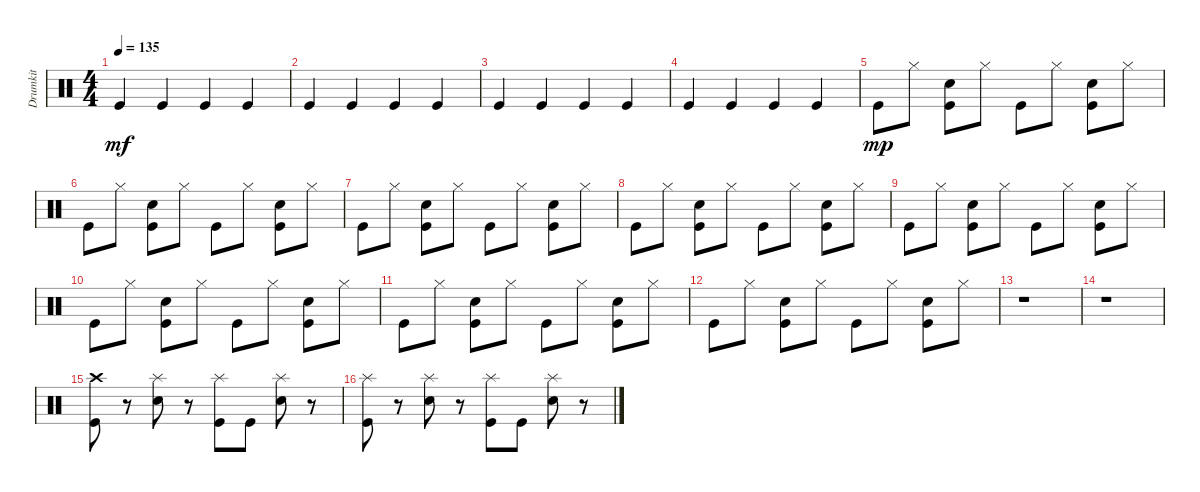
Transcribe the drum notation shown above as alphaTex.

\track ("Drumkit" "Drumkit") {instrument percussion}
\staff {score}
\articulation defaults
\ts (4 4)
\tempo 135
\clef neutral
\ks c "Kick (hit)".4{dy mf} "Kick (hit)".4 "Kick (hit)".4 "Kick (hit)".4
|
"Kick (hit)".4 "Kick (hit)".4 "Kick (hit)".4 "Kick (hit)".4 |
"Kick (hit)".4 "Kick (hit)".4 "Kick (hit)".4 "Kick (hit)".4 |
"Kick (hit)".4 "Kick (hit)".4 "Kick (hit)".4 "Kick (hit)".4 |
"Kick (hit)".8{dy mp} "Hi-Hat (closed)".8 ("Kick (hit)" "Snare (hit) 2").8 "Hi-Hat (closed)".8 "Kick (hit)".8 "Hi-Hat (closed)".8 ("Kick (hit)" "Snare (hit) 2").8 "Hi-Hat (closed)".8 |
"Kick (hit)".8 "Hi-Hat (closed)".8 ("Kick (hit)" "Snare (hit) 2").8 "Hi-Hat (closed)".8 "Kick (hit)".8 "Hi-Hat (closed)".8 ("Kick (hit)" "Snare (hit) 2").8 "Hi-Hat (closed)".8 |
"Kick (hit)".8 "Hi-Hat (closed)".8 ("Kick (hit)" "Snare (hit) 2").8 "Hi-Hat (closed)".8 "Kick (hit)".8 "Hi-Hat (closed)".8 ("Kick (hit)" "Snare (hit) 2").8 "Hi-Hat (closed)".8 |
"Kick (hit)".8 "Hi-Hat (closed)".8 ("Kick (hit)" "Snare (hit) 2").8 "Hi-Hat (closed)".8 "Kick (hit)".8 "Hi-Hat (closed)".8 ("Kick (hit)" "Snare (hit) 2").8 "Hi-Hat (closed)".8 |
"Kick (hit)".8 "Hi-Hat (closed)".8 ("Kick (hit)" "Snare (hit) 2").8 "Hi-Hat (closed)".8 "Kick (hit)".8 "Hi-Hat (closed)".8 ("Kick (hit)" "Snare (hit) 2").8 "Hi-Hat (closed)".8 |
"Kick (hit)".8 "Hi-Hat (closed)".8 ("Kick (hit)" "Snare (hit) 2").8 "Hi-Hat (closed)".8 "Kick (hit)".8 "Hi-Hat (closed)".8 ("Kick (hit)" "Snare (hit) 2").8 "Hi-Hat (closed)".8 |
"Kick (hit)".8 "Hi-Hat (closed)".8 ("Kick (hit)" "Snare (hit) 2").8 "Hi-Hat (closed)".8 "Kick (hit)".8 "Hi-Hat (closed)".8 ("Kick (hit)" "Snare (hit) 2").8 "Hi-Hat (closed)".8 |
"Kick (hit)".8 "Hi-Hat (closed)".8 ("Kick (hit)" "Snare (hit) 2").8 "Hi-Hat (closed)".8 "Kick (hit)".8 "Hi-Hat (closed)".8 ("Kick (hit)" "Snare (hit) 2").8 "Hi-Hat (closed)".8 |
r.1 |
r.1 |
("Kick (hit)" "Crash high (hit)").8 r.8 ("Snare (hit) 2" "Splash (hit)").8 r.8 ("Kick (hit)" "Splash (hit)").8 "Kick (hit)".8 ("Snare (hit) 2" "Splash (hit)").8 r.8 |
("Kick (hit)" "Splash (hit)").8 r.8 ("Snare (hit) 2" "Splash (hit)").8 r.8 ("Kick (hit)" "Splash (hit)").8 "Kick (hit)".8 ("Snare (hit) 2" "Splash (hit)").8 r.8
